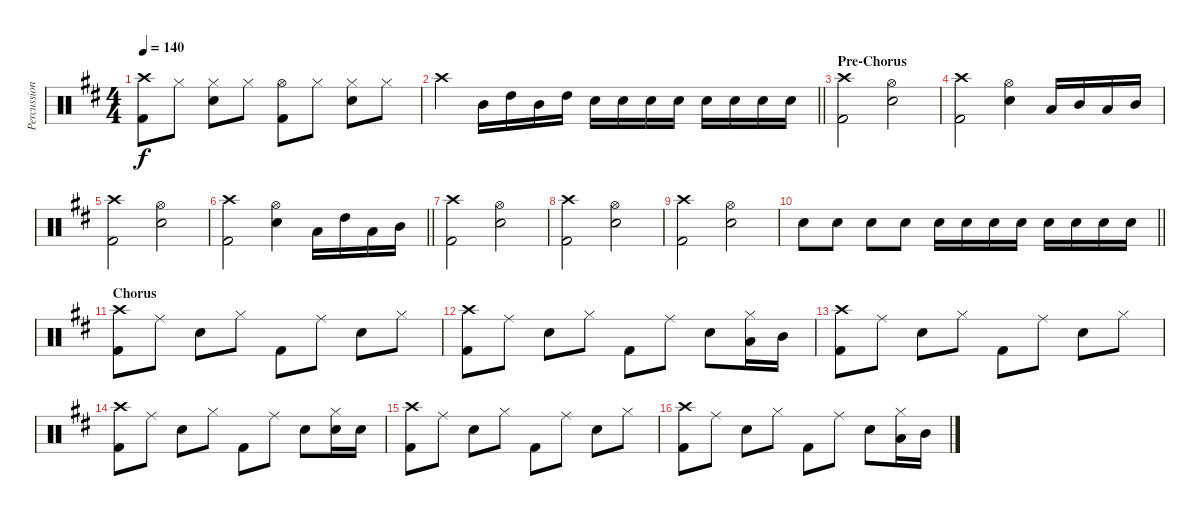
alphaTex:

\track ("Percussion" "Percussion") {instrument percussion}
\staff {score}
\articulation defaults
\ts (4 4)
\tempo 140
\clef neutral
\ks d
("Crash high (hit)" "Kick (hit) 2").8{dy f} "Hi-Hat (closed)".8 ("Hi-Hat (closed)" "Snare (hit) 2").8 "Hi-Hat (closed)".8 ("Hi-Hat (open)" "Kick (hit) 2").8 "Hi-Hat (closed)".8 ("Hi-Hat (closed)" "Snare (hit) 2").8 "Hi-Hat (closed)".8 |
\barLineRight lightlight "Crash high (hit)".4 "Mid Tom (hit)".16 "High Tom (hit)".16 "Mid Tom (hit)".16 "High Tom (hit)".16 "Snare (hit) 2".16 "Snare (hit) 2".16 "Snare (hit) 2".16 "Snare (hit) 2".16 "Snare (hit) 2".16 "Snare (hit) 2".16 "Snare (hit) 2".16 "Snare (hit) 2".16
|
\section ("" "Pre-Chorus")
("Crash high (hit)" "Kick (hit) 2").2 ("Hi-Hat (open)" "Snare (hit) 2").2 |
("Crash high (hit)" "Kick (hit) 2").2 ("Hi-Hat (open)" "Snare (hit) 2").4 "Low Tom (hit)".16 "Mid Tom (hit)".16 "Low Tom (hit)".16 "Mid Tom (hit)".16 |
("Crash high (hit)" "Kick (hit) 2").2 ("Hi-Hat (open)" "Snare (hit) 2").2 |
\barLineRight lightlight
("Crash high (hit)" "Kick (hit) 2").2 ("Hi-Hat (open)" "Snare (hit) 2").4 "Low Tom (hit)".16 "High Tom (hit)".16 "Low Tom (hit)".16 "Mid Tom (hit)".16 |
("Crash high (hit)" "Kick (hit) 2").2 ("Hi-Hat (open)" "Snare (hit) 2").2 |
("Crash high (hit)" "Kick (hit) 2").2 ("Hi-Hat (open)" "Snare (hit) 2").2 |
("Crash high (hit)" "Kick (hit) 2").2 ("Hi-Hat (open)" "Snare (hit) 2").2 |
\barLineRight lightlight "Snare (hit) 2".8 "Snare (hit) 2".8 "Snare (hit) 2".8 "Snare (hit) 2".8 "Snare (hit) 2".16 "Snare (hit) 2".16 "Snare (hit) 2".16 "Snare (hit) 2".16 "Snare (hit) 2".16 "Snare (hit) 2".16 "Snare (hit) 2".16 "Snare (hit) 2".16
|
\section ("" "Chorus")
("Crash high (hit)" "Kick (hit) 2").8 "Ride (middle)".8 "Snare (hit) 2".8 "Hi-Hat (closed)".8 "Kick (hit) 2".8 "Ride (middle)".8 "Snare (hit) 2".8 "Hi-Hat (closed)".8 |
("Crash high (hit)" "Kick (hit) 2").8 "Ride (middle)".8 "Snare (hit) 2".8 "Hi-Hat (closed)".8 "Kick (hit) 2".8 "Ride (middle)".8 "Snare (hit) 2".8 ("Hi-Hat (closed)" "Low Tom (hit)").16 "Mid Tom (hit)".16 |
("Crash high (hit)" "Kick (hit) 2").8 "Ride (middle)".8 "Snare (hit) 2".8 "Hi-Hat (closed)".8 "Kick (hit) 2".8 "Ride (middle)".8 "Snare (hit) 2".8 "Hi-Hat (closed)".8 |
("Crash high (hit)" "Kick (hit) 2").8 "Ride (middle)".8 "Snare (hit) 2".8 "Hi-Hat (closed)".8 "Kick (hit) 2".8 "Ride (middle)".8 "Snare (hit) 2".8 ("Hi-Hat (closed)" "Snare (hit) 2").16 "Snare (hit) 2".16 |
("Crash high (hit)" "Kick (hit) 2").8 "Ride (middle)".8 "Snare (hit) 2".8 "Hi-Hat (closed)".8 "Kick (hit) 2".8 "Ride (middle)".8 "Snare (hit) 2".8 "Hi-Hat (closed)".8 |
("Crash high (hit)" "Kick (hit) 2").8 "Ride (middle)".8 "Snare (hit) 2".8 "Hi-Hat (closed)".8 "Kick (hit) 2".8 "Ride (middle)".8 "Snare (hit) 2".8 ("Hi-Hat (closed)" "Low Tom (hit)").16 "Mid Tom (hit)".16
